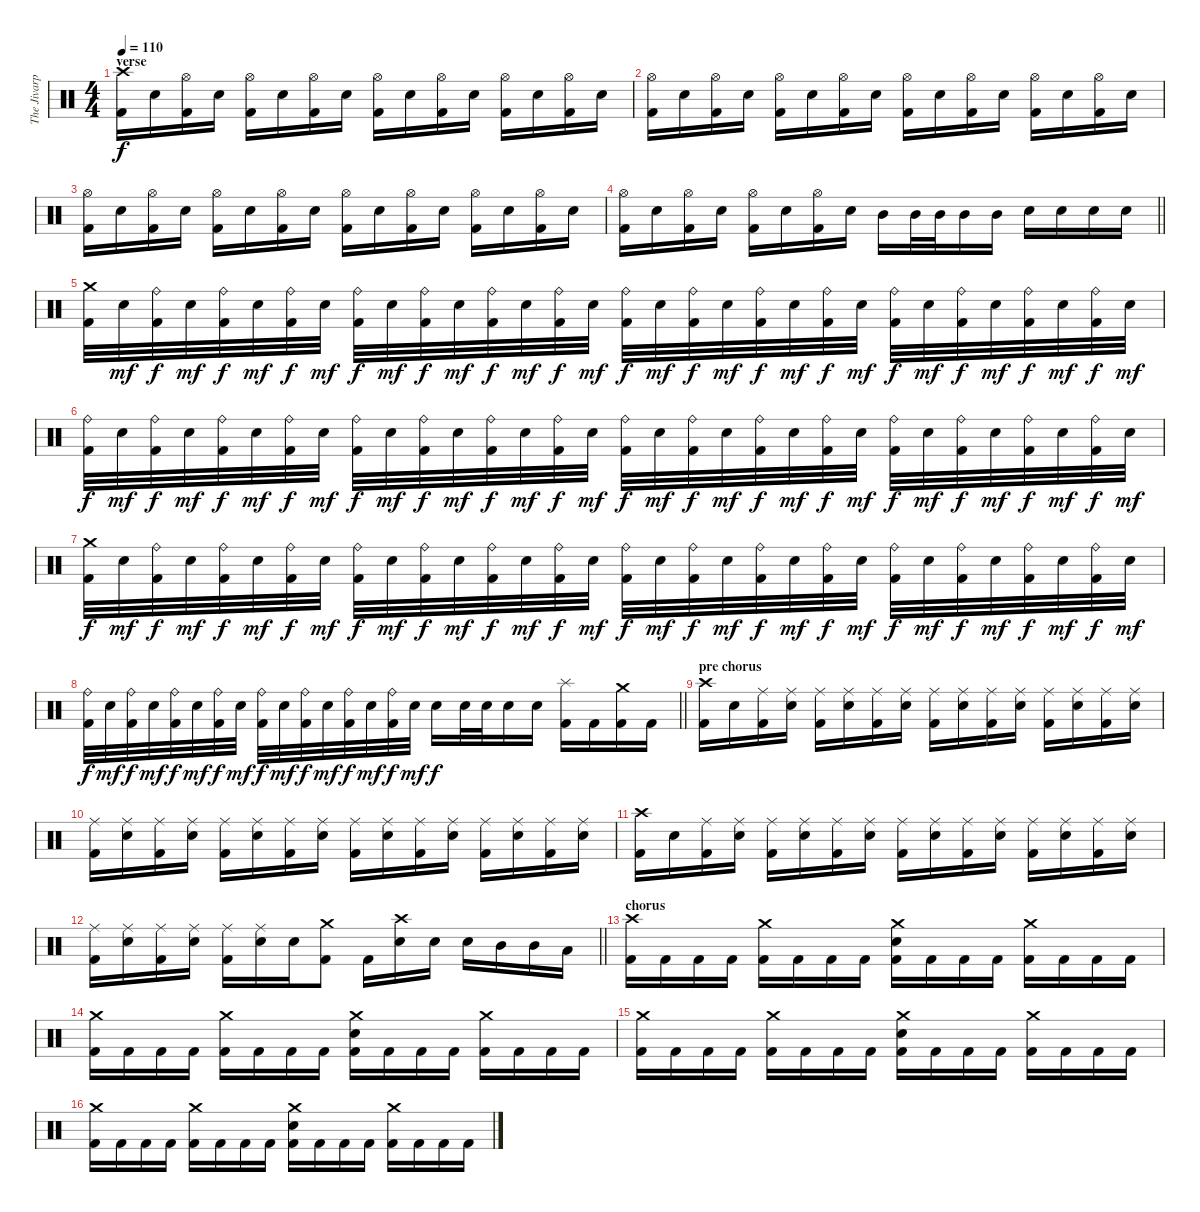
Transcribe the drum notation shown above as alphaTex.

\track ("The Jivarp" "The Jivarp") {instrument percussion}
\staff {score}
\articulation defaults
\ts (4 4)
\section ("" "verse")
\tempo 110
\clef neutral
\ks c
("Crash high (hit)" "Kick (hit) 2").16{dy f} "Electric Snare (hit)".16 ("Hi-Hat (open)" "Kick (hit) 2").16 "Electric Snare (hit)".16 ("Hi-Hat (open)" "Kick (hit) 2").16 "Electric Snare (hit)".16 ("Hi-Hat (open)" "Kick (hit) 2").16 "Electric Snare (hit)".16 ("Hi-Hat (open)" "Kick (hit) 2").16 "Electric Snare (hit)".16 ("Hi-Hat (open)" "Kick (hit) 2").16 "Electric Snare (hit)".16 ("Hi-Hat (open)" "Kick (hit) 2").16 "Electric Snare (hit)".16 ("Hi-Hat (open)" "Kick (hit) 2").16 "Electric Snare (hit)".16 |
("Hi-Hat (open)" "Kick (hit) 2").16 "Electric Snare (hit)".16 ("Hi-Hat (open)" "Kick (hit) 2").16 "Electric Snare (hit)".16 ("Hi-Hat (open)" "Kick (hit) 2").16 "Electric Snare (hit)".16 ("Hi-Hat (open)" "Kick (hit) 2").16 "Electric Snare (hit)".16 ("Hi-Hat (open)" "Kick (hit) 2").16 "Electric Snare (hit)".16 ("Hi-Hat (open)" "Kick (hit) 2").16 "Electric Snare (hit)".16 ("Hi-Hat (open)" "Kick (hit) 2").16 "Electric Snare (hit)".16 ("Hi-Hat (open)" "Kick (hit) 2").16 "Electric Snare (hit)".16 |
("Hi-Hat (open)" "Kick (hit) 2").16 "Electric Snare (hit)".16 ("Hi-Hat (open)" "Kick (hit) 2").16 "Electric Snare (hit)".16 ("Hi-Hat (open)" "Kick (hit) 2").16 "Electric Snare (hit)".16 ("Hi-Hat (open)" "Kick (hit) 2").16 "Electric Snare (hit)".16 ("Hi-Hat (open)" "Kick (hit) 2").16 "Electric Snare (hit)".16 ("Hi-Hat (open)" "Kick (hit) 2").16 "Electric Snare (hit)".16 ("Hi-Hat (open)" "Kick (hit) 2").16 "Electric Snare (hit)".16 ("Hi-Hat (open)" "Kick (hit) 2").16 "Electric Snare (hit)".16 |
\barLineRight lightlight
("Hi-Hat (open)" "Kick (hit) 2").16 "Electric Snare (hit)".16 ("Hi-Hat (open)" "Kick (hit) 2").16 "Electric Snare (hit)".16 ("Hi-Hat (open)" "Kick (hit) 2").16 "Electric Snare (hit)".16 ("Hi-Hat (open)" "Kick (hit) 2").16 "Electric Snare (hit)".16 "Mid Tom (hit)".16 "Mid Tom (hit)".32 "Mid Tom (hit)".32 "Mid Tom (hit)".16 "Mid Tom (hit)".16 "Electric Snare (hit)".16 "Electric Snare (hit)".16 "Electric Snare (hit)".16 "Electric Snare (hit)".16 |
\section ("" "")
("Crash medium (hit)" "Kick (hit) 2").32 "Electric Snare (hit)".32{dy mf} ("Ride (bell)" "Kick (hit) 2").32{dy f} "Electric Snare (hit)".32{dy mf} ("Ride (bell)" "Kick (hit) 2").32{dy f} "Electric Snare (hit)".32{dy mf} ("Ride (bell)" "Kick (hit) 2").32{dy f} "Electric Snare (hit)".32{dy mf} ("Ride (bell)" "Kick (hit) 2").32{dy f} "Electric Snare (hit)".32{dy mf} ("Ride (bell)" "Kick (hit) 2").32{dy f} "Electric Snare (hit)".32{dy mf} ("Ride (bell)" "Kick (hit) 2").32{dy f} "Electric Snare (hit)".32{dy mf} ("Ride (bell)" "Kick (hit) 2").32{dy f} "Electric Snare (hit)".32{dy mf} ("Ride (bell)" "Kick (hit) 2").32{dy f} "Electric Snare (hit)".32{dy mf} ("Ride (bell)" "Kick (hit) 2").32{dy f} "Electric Snare (hit)".32{dy mf} ("Ride (bell)" "Kick (hit) 2").32{dy f} "Electric Snare (hit)".32{dy mf} ("Ride (bell)" "Kick (hit) 2").32{dy f} "Electric Snare (hit)".32{dy mf} ("Ride (bell)" "Kick (hit) 2").32{dy f} "Electric Snare (hit)".32{dy mf} ("Ride (bell)" "Kick (hit) 2").32{dy f} "Electric Snare (hit)".32{dy mf} ("Ride (bell)" "Kick (hit) 2").32{dy f} "Electric Snare (hit)".32{dy mf} ("Ride (bell)" "Kick (hit) 2").32{dy f} "Electric Snare (hit)".32{dy mf} |
("Ride (bell)" "Kick (hit) 2").32{dy f} "Electric Snare (hit)".32{dy mf} ("Ride (bell)" "Kick (hit) 2").32{dy f} "Electric Snare (hit)".32{dy mf} ("Ride (bell)" "Kick (hit) 2").32{dy f} "Electric Snare (hit)".32{dy mf} ("Ride (bell)" "Kick (hit) 2").32{dy f} "Electric Snare (hit)".32{dy mf} ("Ride (bell)" "Kick (hit) 2").32{dy f} "Electric Snare (hit)".32{dy mf} ("Ride (bell)" "Kick (hit) 2").32{dy f} "Electric Snare (hit)".32{dy mf} ("Ride (bell)" "Kick (hit) 2").32{dy f} "Electric Snare (hit)".32{dy mf} ("Ride (bell)" "Kick (hit) 2").32{dy f} "Electric Snare (hit)".32{dy mf} ("Ride (bell)" "Kick (hit) 2").32{dy f} "Electric Snare (hit)".32{dy mf} ("Ride (bell)" "Kick (hit) 2").32{dy f} "Electric Snare (hit)".32{dy mf} ("Ride (bell)" "Kick (hit) 2").32{dy f} "Electric Snare (hit)".32{dy mf} ("Ride (bell)" "Kick (hit) 2").32{dy f} "Electric Snare (hit)".32{dy mf} ("Ride (bell)" "Kick (hit) 2").32{dy f} "Electric Snare (hit)".32{dy mf} ("Ride (bell)" "Kick (hit) 2").32{dy f} "Electric Snare (hit)".32{dy mf} ("Ride (bell)" "Kick (hit) 2").32{dy f} "Electric Snare (hit)".32{dy mf} ("Ride (bell)" "Kick (hit) 2").32{dy f} "Electric Snare (hit)".32{dy mf} |
("Crash medium (hit)" "Kick (hit) 2").32{dy f} "Electric Snare (hit)".32{dy mf} ("Ride (bell)" "Kick (hit) 2").32{dy f} "Electric Snare (hit)".32{dy mf} ("Ride (bell)" "Kick (hit) 2").32{dy f} "Electric Snare (hit)".32{dy mf} ("Ride (bell)" "Kick (hit) 2").32{dy f} "Electric Snare (hit)".32{dy mf} ("Ride (bell)" "Kick (hit) 2").32{dy f} "Electric Snare (hit)".32{dy mf} ("Ride (bell)" "Kick (hit) 2").32{dy f} "Electric Snare (hit)".32{dy mf} ("Ride (bell)" "Kick (hit) 2").32{dy f} "Electric Snare (hit)".32{dy mf} ("Ride (bell)" "Kick (hit) 2").32{dy f} "Electric Snare (hit)".32{dy mf} ("Ride (bell)" "Kick (hit) 2").32{dy f} "Electric Snare (hit)".32{dy mf} ("Ride (bell)" "Kick (hit) 2").32{dy f} "Electric Snare (hit)".32{dy mf} ("Ride (bell)" "Kick (hit) 2").32{dy f} "Electric Snare (hit)".32{dy mf} ("Ride (bell)" "Kick (hit) 2").32{dy f} "Electric Snare (hit)".32{dy mf} ("Ride (bell)" "Kick (hit) 2").32{dy f} "Electric Snare (hit)".32{dy mf} ("Ride (bell)" "Kick (hit) 2").32{dy f} "Electric Snare (hit)".32{dy mf} ("Ride (bell)" "Kick (hit) 2").32{dy f} "Electric Snare (hit)".32{dy mf} ("Ride (bell)" "Kick (hit) 2").32{dy f} "Electric Snare (hit)".32{dy mf} |
\barLineRight lightlight
("Ride (bell)" "Kick (hit) 2").32{dy f} "Electric Snare (hit)".32{dy mf} ("Ride (bell)" "Kick (hit) 2").32{dy f} "Electric Snare (hit)".32{dy mf} ("Ride (bell)" "Kick (hit) 2").32{dy f} "Electric Snare (hit)".32{dy mf} ("Ride (bell)" "Kick (hit) 2").32{dy f} "Electric Snare (hit)".32{dy mf} ("Ride (bell)" "Kick (hit) 2").32{dy f} "Electric Snare (hit)".32{dy mf} ("Ride (bell)" "Kick (hit) 2").32{dy f} "Electric Snare (hit)".32{dy mf} ("Ride (bell)" "Kick (hit) 2").32{dy f} "Electric Snare (hit)".32{dy mf} ("Ride (bell)" "Kick (hit) 2").32{dy f} "Electric Snare (hit)".32{dy mf} "Electric Snare (hit)".16{dy f} "Electric Snare (hit)".32 "Electric Snare (hit)".32 "Electric Snare (hit)".16 "Electric Snare (hit)".16 ("Splash (hit)" "Kick (hit) 2").16 "Kick (hit) 2".16 ("Crash medium (hit)" "Kick (hit) 2").16 "Kick (hit) 2".16 |
\section ("" "pre chorus")
("Crash high (hit)" "Kick (hit) 2").16 "Electric Snare (hit)".16 ("Ride (middle)" "Kick (hit) 2").16 ("Ride (middle)" "Electric Snare (hit)").16 ("Ride (middle)" "Kick (hit) 2").16 ("Ride (middle)" "Electric Snare (hit)").16 ("Ride (middle)" "Kick (hit) 2").16 ("Ride (middle)" "Electric Snare (hit)").16 ("Ride (middle)" "Kick (hit) 2").16 ("Ride (middle)" "Electric Snare (hit)").16 ("Ride (middle)" "Kick (hit) 2").16 ("Ride (middle)" "Electric Snare (hit)").16 ("Ride (middle)" "Kick (hit) 2").16 ("Ride (middle)" "Electric Snare (hit)").16 ("Ride (middle)" "Kick (hit) 2").16 ("Ride (middle)" "Electric Snare (hit)").16 |
("Ride (middle)" "Kick (hit) 2").16 ("Ride (middle)" "Electric Snare (hit)").16 ("Ride (middle)" "Kick (hit) 2").16 ("Ride (middle)" "Electric Snare (hit)").16 ("Ride (middle)" "Kick (hit) 2").16 ("Ride (middle)" "Electric Snare (hit)").16 ("Ride (middle)" "Kick (hit) 2").16 ("Ride (middle)" "Electric Snare (hit)").16 ("Ride (middle)" "Kick (hit) 2").16 ("Ride (middle)" "Electric Snare (hit)").16 ("Ride (middle)" "Kick (hit) 2").16 ("Ride (middle)" "Electric Snare (hit)").16 ("Ride (middle)" "Kick (hit) 2").16 ("Ride (middle)" "Electric Snare (hit)").16 ("Ride (middle)" "Kick (hit) 2").16 ("Ride (middle)" "Electric Snare (hit)").16 |
("Crash high (hit)" "Kick (hit) 2").16 "Electric Snare (hit)".16 ("Ride (middle)" "Kick (hit) 2").16 ("Ride (middle)" "Electric Snare (hit)").16 ("Ride (middle)" "Kick (hit) 2").16 ("Ride (middle)" "Electric Snare (hit)").16 ("Ride (middle)" "Kick (hit) 2").16 ("Ride (middle)" "Electric Snare (hit)").16 ("Ride (middle)" "Kick (hit) 2").16 ("Ride (middle)" "Electric Snare (hit)").16 ("Ride (middle)" "Kick (hit) 2").16 ("Ride (middle)" "Electric Snare (hit)").16 ("Ride (middle)" "Kick (hit) 2").16 ("Ride (middle)" "Electric Snare (hit)").16 ("Ride (middle)" "Kick (hit) 2").16 ("Ride (middle)" "Electric Snare (hit)").16 |
\barLineRight lightlight
("Ride (middle)" "Kick (hit) 2").16 ("Ride (middle)" "Electric Snare (hit)").16 ("Ride (middle)" "Kick (hit) 2").16 ("Ride (middle)" "Electric Snare (hit)").16 ("Ride (middle)" "Kick (hit) 2").16 ("Ride (middle)" "Electric Snare (hit)").16 "Electric Snare (hit)".16 ("Crash medium (hit)" "Kick (hit) 2").8 "Kick (hit) 2".16 ("Crash high (hit)" "Electric Snare (hit)").16 "Electric Snare (hit)".16 "Electric Snare (hit)".16 "Mid Tom (hit)".16 "Mid Tom (hit)".16 "Low Tom (hit)".16 |
\section ("" "chorus")
("Crash high (hit)" "Kick (hit) 2").16 "Kick (hit) 2".16 "Kick (hit) 2".16 "Kick (hit) 2".16 ("Crash medium (hit)" "Kick (hit) 2").16 "Kick (hit) 2".16 "Kick (hit) 2".16 "Kick (hit) 2".16 ("Crash medium (hit)" "Electric Snare (hit)" "Kick (hit) 2").16 "Kick (hit) 2".16 "Kick (hit) 2".16 "Kick (hit) 2".16 ("Crash medium (hit)" "Kick (hit) 2").16 "Kick (hit) 2".16 "Kick (hit) 2".16 "Kick (hit) 2".16 |
("Crash medium (hit)" "Kick (hit) 2").16 "Kick (hit) 2".16 "Kick (hit) 2".16 "Kick (hit) 2".16 ("Crash medium (hit)" "Kick (hit) 2").16 "Kick (hit) 2".16 "Kick (hit) 2".16 "Kick (hit) 2".16 ("Crash medium (hit)" "Electric Snare (hit)" "Kick (hit) 2").16 "Kick (hit) 2".16 "Kick (hit) 2".16 "Kick (hit) 2".16 ("Crash medium (hit)" "Kick (hit) 2").16 "Kick (hit) 2".16 "Kick (hit) 2".16 "Kick (hit) 2".16 |
("Crash medium (hit)" "Kick (hit) 2").16 "Kick (hit) 2".16 "Kick (hit) 2".16 "Kick (hit) 2".16 ("Crash medium (hit)" "Kick (hit) 2").16 "Kick (hit) 2".16 "Kick (hit) 2".16 "Kick (hit) 2".16 ("Crash medium (hit)" "Electric Snare (hit)" "Kick (hit) 2").16 "Kick (hit) 2".16 "Kick (hit) 2".16 "Kick (hit) 2".16 ("Crash medium (hit)" "Kick (hit) 2").16 "Kick (hit) 2".16 "Kick (hit) 2".16 "Kick (hit) 2".16 |
("Crash medium (hit)" "Kick (hit) 2").16 "Kick (hit) 2".16 "Kick (hit) 2".16 "Kick (hit) 2".16 ("Crash medium (hit)" "Kick (hit) 2").16 "Kick (hit) 2".16 "Kick (hit) 2".16 "Kick (hit) 2".16 ("Crash medium (hit)" "Electric Snare (hit)" "Kick (hit) 2").16 "Kick (hit) 2".16 "Kick (hit) 2".16 "Kick (hit) 2".16 ("Crash medium (hit)" "Kick (hit) 2").16 "Kick (hit) 2".16 "Kick (hit) 2".16 "Kick (hit) 2".16
